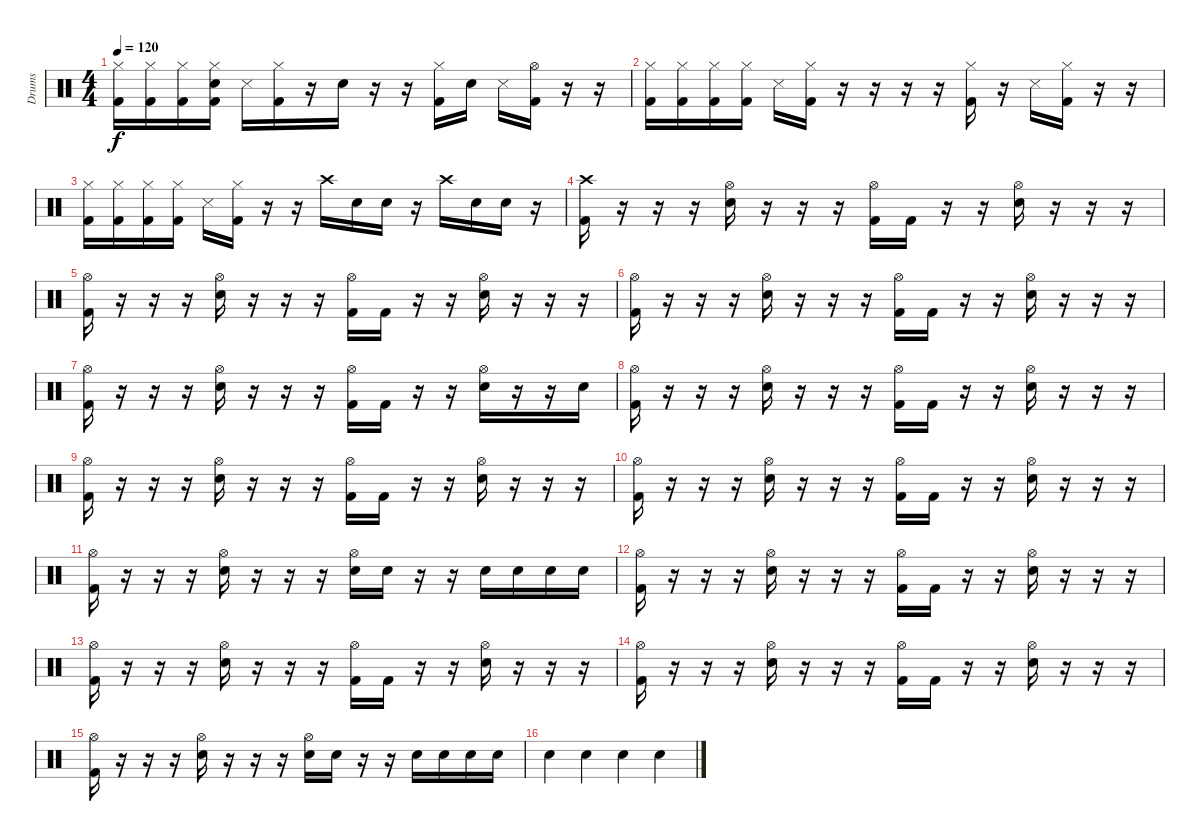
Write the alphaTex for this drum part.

\track ("Drums" "Drums") {instrument percussion}
\staff {score}
\articulation defaults
\ts (4 4)
\tempo 120
\clef neutral
\ks c
("Hi-Hat (closed)" "Kick (hit) 2").16{dy f} ("Hi-Hat (closed)" "Kick (hit) 2").16 ("Hi-Hat (closed)" "Kick (hit) 2").16 ("Hi-Hat (closed)" "Hand Clap (hit)" "Kick (hit) 2").16 "Snare (side stick) 3".16 ("Hi-Hat (closed)" "Kick (hit) 2").16 r.16 "Hand Clap (hit)".16 r.16 r.16 ("Hi-Hat (closed)" "Kick (hit) 2").16 "Hand Clap (hit)".16 "Snare (side stick) 3".16 ("Hi-Hat (open)" "Kick (hit) 2").16 r.16 r.16 |
("Hi-Hat (closed)" "Kick (hit) 2").16 ("Hi-Hat (closed)" "Kick (hit) 2").16 ("Hi-Hat (closed)" "Kick (hit) 2").16 ("Hi-Hat (closed)" "Kick (hit) 2").16 "Snare (side stick) 3".16 ("Hi-Hat (closed)" "Kick (hit) 2").16 r.16 r.16 r.16 r.16 ("Hi-Hat (closed)" "Kick (hit) 2").16 r.16 "Snare (side stick) 3".16 ("Hi-Hat (closed)" "Kick (hit) 2").16 r.16 r.16 |
("Hi-Hat (closed)" "Kick (hit) 2").16 ("Hi-Hat (closed)" "Kick (hit) 2").16 ("Hi-Hat (closed)" "Kick (hit) 2").16 ("Hi-Hat (closed)" "Kick (hit) 2").16 "Snare (side stick) 3".16 ("Hi-Hat (closed)" "Kick (hit) 2").16 r.16 r.16 "Crash high (hit)".16 "Electric Snare (hit)".16 "Electric Snare (hit)".16 r.16 "Crash high (hit)".16 "Electric Snare (hit)".16 "Electric Snare (hit)".16 r.16 |
("Crash high (hit)" "Kick (hit) 2").16 r.16 r.16 r.16 ("Hi-Hat (open)" "Electric Snare (hit)").16 r.16 r.16 r.16 ("Hi-Hat (open)" "Kick (hit) 2").16 "Kick (hit) 2".16 r.16 r.16 ("Hi-Hat (open)" "Electric Snare (hit)").16 r.16 r.16 r.16 |
("Hi-Hat (open)" "Kick (hit) 2").16 r.16 r.16 r.16 ("Hi-Hat (open)" "Electric Snare (hit)").16 r.16 r.16 r.16 ("Hi-Hat (open)" "Kick (hit) 2").16 "Kick (hit) 2".16 r.16 r.16 ("Hi-Hat (open)" "Electric Snare (hit)").16 r.16 r.16 r.16 |
("Hi-Hat (open)" "Kick (hit) 2").16 r.16 r.16 r.16 ("Hi-Hat (open)" "Electric Snare (hit)").16 r.16 r.16 r.16 ("Hi-Hat (open)" "Kick (hit) 2").16 "Kick (hit) 2".16 r.16 r.16 ("Hi-Hat (open)" "Electric Snare (hit)").16 r.16 r.16 r.16 |
("Hi-Hat (open)" "Kick (hit) 2").16 r.16 r.16 r.16 ("Hi-Hat (open)" "Electric Snare (hit)").16 r.16 r.16 r.16 ("Hi-Hat (open)" "Kick (hit) 2").16 "Kick (hit) 2".16 r.16 r.16 ("Hi-Hat (open)" "Electric Snare (hit)").16 r.16 r.16 "Electric Snare (hit)".16 |
("Hi-Hat (open)" "Kick (hit) 2").16 r.16 r.16 r.16 ("Hi-Hat (open)" "Electric Snare (hit)").16 r.16 r.16 r.16 ("Hi-Hat (open)" "Kick (hit) 2").16 "Kick (hit) 2".16 r.16 r.16 ("Hi-Hat (open)" "Electric Snare (hit)").16 r.16 r.16 r.16 |
("Hi-Hat (open)" "Kick (hit) 2").16 r.16 r.16 r.16 ("Hi-Hat (open)" "Electric Snare (hit)").16 r.16 r.16 r.16 ("Hi-Hat (open)" "Kick (hit) 2").16 "Kick (hit) 2".16 r.16 r.16 ("Hi-Hat (open)" "Electric Snare (hit)").16 r.16 r.16 r.16 |
("Hi-Hat (open)" "Kick (hit) 2").16 r.16 r.16 r.16 ("Hi-Hat (open)" "Electric Snare (hit)").16 r.16 r.16 r.16 ("Hi-Hat (open)" "Kick (hit) 2").16 "Kick (hit) 2".16 r.16 r.16 ("Hi-Hat (open)" "Electric Snare (hit)").16 r.16 r.16 r.16 |
("Hi-Hat (open)" "Kick (hit) 2").16 r.16 r.16 r.16 ("Hi-Hat (open)" "Electric Snare (hit)").16 r.16 r.16 r.16 ("Hi-Hat (open)" "Electric Snare (hit)").16 "Electric Snare (hit)".16 r.16 r.16 "Electric Snare (hit)".16 "Electric Snare (hit)".16 "Electric Snare (hit)".16 "Electric Snare (hit)".16 |
("Hi-Hat (open)" "Kick (hit) 2").16 r.16 r.16 r.16 ("Hi-Hat (open)" "Electric Snare (hit)").16 r.16 r.16 r.16 ("Hi-Hat (open)" "Kick (hit) 2").16 "Kick (hit) 2".16 r.16 r.16 ("Hi-Hat (open)" "Electric Snare (hit)").16 r.16 r.16 r.16 |
("Hi-Hat (open)" "Kick (hit) 2").16 r.16 r.16 r.16 ("Hi-Hat (open)" "Electric Snare (hit)").16 r.16 r.16 r.16 ("Hi-Hat (open)" "Kick (hit) 2").16 "Kick (hit) 2".16 r.16 r.16 ("Hi-Hat (open)" "Electric Snare (hit)").16 r.16 r.16 r.16 |
("Hi-Hat (open)" "Kick (hit) 2").16 r.16 r.16 r.16 ("Hi-Hat (open)" "Electric Snare (hit)").16 r.16 r.16 r.16 ("Hi-Hat (open)" "Kick (hit) 2").16 "Kick (hit) 2".16 r.16 r.16 ("Hi-Hat (open)" "Electric Snare (hit)").16 r.16 r.16 r.16 |
("Hi-Hat (open)" "Kick (hit) 2").16 r.16 r.16 r.16 ("Hi-Hat (open)" "Electric Snare (hit)").16 r.16 r.16 r.16 ("Hi-Hat (open)" "Electric Snare (hit)").16 "Electric Snare (hit)".16 r.16 r.16 "Electric Snare (hit)".16 "Electric Snare (hit)".16 "Electric Snare (hit)".16 "Electric Snare (hit)".16 |
"Hand Clap (hit)".4 "Hand Clap (hit)".4 "Hand Clap (hit)".4 "Hand Clap (hit)".4
